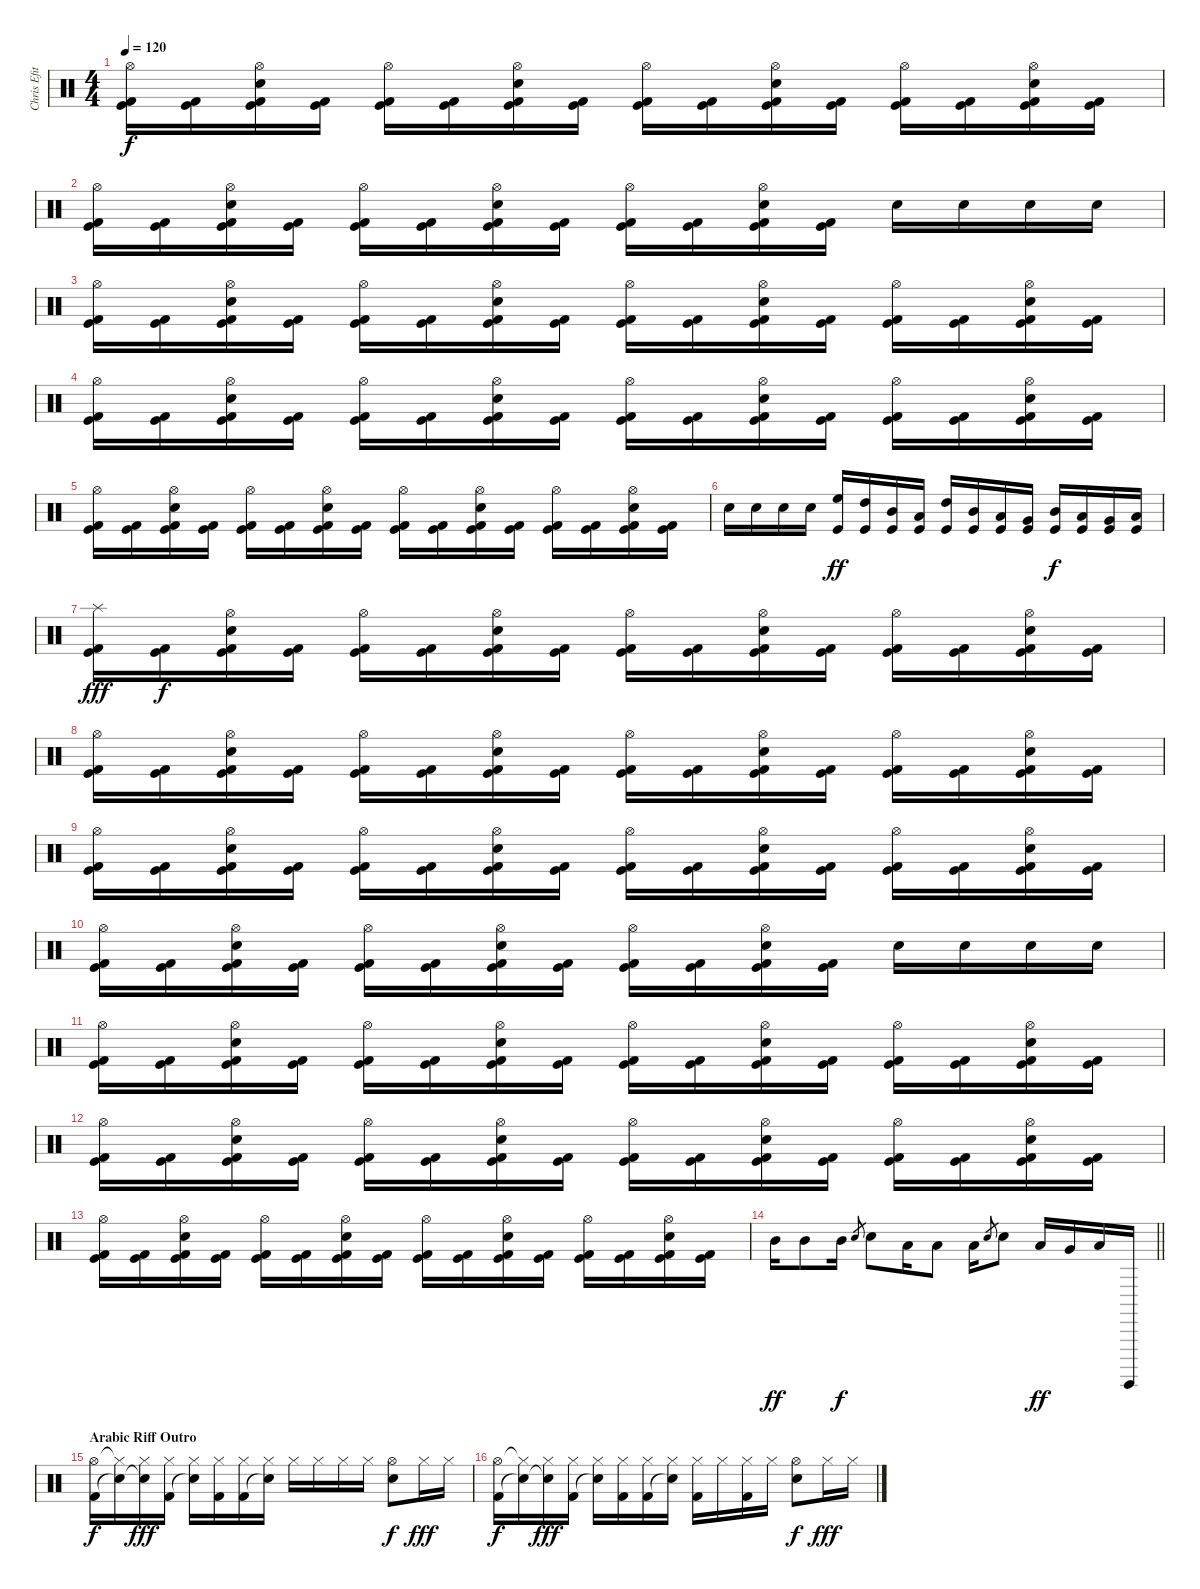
\track ("Chris Efithimiadis (drums)" "Chris Efit") {instrument percussion}
\staff {score}
\articulation defaults
\ts (4 4)
\tempo 120
\clef neutral
\ks c
("Hi-Hat (open)" "Kick (hit)" "Kick (hit) 2").16{dy f} ("Kick (hit)" "Kick (hit) 2").16 ("Hi-Hat (open)" "Snare (hit) 2" "Kick (hit)" "Kick (hit) 2").16 ("Kick (hit)" "Kick (hit) 2").16 ("Hi-Hat (open)" "Kick (hit)" "Kick (hit) 2").16 ("Kick (hit)" "Kick (hit) 2").16 ("Hi-Hat (open)" "Snare (hit) 2" "Kick (hit)" "Kick (hit) 2").16 ("Kick (hit)" "Kick (hit) 2").16 ("Hi-Hat (open)" "Kick (hit)" "Kick (hit) 2").16 ("Kick (hit)" "Kick (hit) 2").16 ("Hi-Hat (open)" "Snare (hit) 2" "Kick (hit)" "Kick (hit) 2").16 ("Kick (hit)" "Kick (hit) 2").16 ("Hi-Hat (open)" "Kick (hit)" "Kick (hit) 2").16 ("Kick (hit)" "Kick (hit) 2").16 ("Hi-Hat (open)" "Snare (hit) 2" "Kick (hit)" "Kick (hit) 2").16 ("Kick (hit)" "Kick (hit) 2").16 |
("Hi-Hat (open)" "Kick (hit)" "Kick (hit) 2").16 ("Kick (hit)" "Kick (hit) 2").16 ("Hi-Hat (open)" "Snare (hit) 2" "Kick (hit)" "Kick (hit) 2").16 ("Kick (hit)" "Kick (hit) 2").16 ("Hi-Hat (open)" "Kick (hit)" "Kick (hit) 2").16 ("Kick (hit)" "Kick (hit) 2").16 ("Hi-Hat (open)" "Snare (hit) 2" "Kick (hit)" "Kick (hit) 2").16 ("Kick (hit)" "Kick (hit) 2").16 ("Hi-Hat (open)" "Kick (hit)" "Kick (hit) 2").16 ("Kick (hit)" "Kick (hit) 2").16 ("Hi-Hat (open)" "Snare (hit) 2" "Kick (hit)" "Kick (hit) 2").16 ("Kick (hit)" "Kick (hit) 2").16 "Snare (hit) 2".16 "Snare (hit) 2".16 "Snare (hit) 2".16 "Snare (hit) 2".16 |
("Hi-Hat (open)" "Kick (hit)" "Kick (hit) 2").16 ("Kick (hit)" "Kick (hit) 2").16 ("Hi-Hat (open)" "Snare (hit) 2" "Kick (hit)" "Kick (hit) 2").16 ("Kick (hit)" "Kick (hit) 2").16 ("Hi-Hat (open)" "Kick (hit)" "Kick (hit) 2").16 ("Kick (hit)" "Kick (hit) 2").16 ("Hi-Hat (open)" "Snare (hit) 2" "Kick (hit)" "Kick (hit) 2").16 ("Kick (hit)" "Kick (hit) 2").16 ("Hi-Hat (open)" "Kick (hit)" "Kick (hit) 2").16 ("Kick (hit)" "Kick (hit) 2").16 ("Hi-Hat (open)" "Snare (hit) 2" "Kick (hit)" "Kick (hit) 2").16 ("Kick (hit)" "Kick (hit) 2").16 ("Hi-Hat (open)" "Kick (hit)" "Kick (hit) 2").16 ("Kick (hit)" "Kick (hit) 2").16 ("Hi-Hat (open)" "Snare (hit) 2" "Kick (hit)" "Kick (hit) 2").16 ("Kick (hit)" "Kick (hit) 2").16 |
("Hi-Hat (open)" "Kick (hit)" "Kick (hit) 2").16 ("Kick (hit)" "Kick (hit) 2").16 ("Hi-Hat (open)" "Snare (hit) 2" "Kick (hit)" "Kick (hit) 2").16 ("Kick (hit)" "Kick (hit) 2").16 ("Hi-Hat (open)" "Kick (hit)" "Kick (hit) 2").16 ("Kick (hit)" "Kick (hit) 2").16 ("Hi-Hat (open)" "Snare (hit) 2" "Kick (hit)" "Kick (hit) 2").16 ("Kick (hit)" "Kick (hit) 2").16 ("Hi-Hat (open)" "Kick (hit)" "Kick (hit) 2").16 ("Kick (hit)" "Kick (hit) 2").16 ("Hi-Hat (open)" "Snare (hit) 2" "Kick (hit)" "Kick (hit) 2").16 ("Kick (hit)" "Kick (hit) 2").16 ("Hi-Hat (open)" "Kick (hit)" "Kick (hit) 2").16 ("Kick (hit)" "Kick (hit) 2").16 ("Hi-Hat (open)" "Snare (hit) 2" "Kick (hit)" "Kick (hit) 2").16 ("Kick (hit)" "Kick (hit) 2").16 |
("Hi-Hat (open)" "Kick (hit)" "Kick (hit) 2").16 ("Kick (hit)" "Kick (hit) 2").16 ("Hi-Hat (open)" "Snare (hit) 2" "Kick (hit)" "Kick (hit) 2").16 ("Kick (hit)" "Kick (hit) 2").16 ("Hi-Hat (open)" "Kick (hit)" "Kick (hit) 2").16 ("Kick (hit)" "Kick (hit) 2").16 ("Hi-Hat (open)" "Snare (hit) 2" "Kick (hit)" "Kick (hit) 2").16 ("Kick (hit)" "Kick (hit) 2").16 ("Hi-Hat (open)" "Kick (hit)" "Kick (hit) 2").16 ("Kick (hit)" "Kick (hit) 2").16 ("Hi-Hat (open)" "Snare (hit) 2" "Kick (hit)" "Kick (hit) 2").16 ("Kick (hit)" "Kick (hit) 2").16 ("Hi-Hat (open)" "Kick (hit)" "Kick (hit) 2").16 ("Kick (hit)" "Kick (hit) 2").16 ("Hi-Hat (open)" "Snare (hit) 2" "Kick (hit)" "Kick (hit) 2").16 ("Kick (hit)" "Kick (hit) 2").16 |
"Snare (hit) 2".16 "Snare (hit) 2".16 "Snare (hit) 2".16 "Snare (hit) 2".16 ("High Floor Tom (hit)" "Kick (hit)").16{dy ff} ("High Tom (hit)" "Kick (hit)").16 ("Mid Tom (hit)" "Kick (hit)").16 ("Low Tom (hit)" "Kick (hit)").16 ("High Tom (hit)" "Kick (hit)").16 ("Mid Tom (hit)" "Kick (hit)").16 ("Low Tom (hit)" "Kick (hit)").16 ("Very Low Tom (hit)" "Kick (hit)").16 ("Mid Tom (hit)" "Kick (hit)").16{dy f} ("Low Tom (hit)" "Kick (hit)").16 ("Very Low Tom (hit)" "Kick (hit)").16 ("Low Floor Tom (hit)" "Kick (hit)").16 |
("Splash (hit)" "Kick (hit)" "Kick (hit) 2").16{dy fff} ("Kick (hit)" "Kick (hit) 2").16{dy f} ("Hi-Hat (open)" "Snare (hit) 2" "Kick (hit)" "Kick (hit) 2").16 ("Kick (hit)" "Kick (hit) 2").16 ("Hi-Hat (open)" "Kick (hit)" "Kick (hit) 2").16 ("Kick (hit)" "Kick (hit) 2").16 ("Hi-Hat (open)" "Snare (hit) 2" "Kick (hit)" "Kick (hit) 2").16 ("Kick (hit)" "Kick (hit) 2").16 ("Hi-Hat (open)" "Kick (hit)" "Kick (hit) 2").16 ("Kick (hit)" "Kick (hit) 2").16 ("Hi-Hat (open)" "Snare (hit) 2" "Kick (hit)" "Kick (hit) 2").16 ("Kick (hit)" "Kick (hit) 2").16 ("Hi-Hat (open)" "Kick (hit)" "Kick (hit) 2").16 ("Kick (hit)" "Kick (hit) 2").16 ("Hi-Hat (open)" "Snare (hit) 2" "Kick (hit)" "Kick (hit) 2").16 ("Kick (hit)" "Kick (hit) 2").16 |
("Hi-Hat (open)" "Kick (hit)" "Kick (hit) 2").16 ("Kick (hit)" "Kick (hit) 2").16 ("Hi-Hat (open)" "Snare (hit) 2" "Kick (hit)" "Kick (hit) 2").16 ("Kick (hit)" "Kick (hit) 2").16 ("Hi-Hat (open)" "Kick (hit)" "Kick (hit) 2").16 ("Kick (hit)" "Kick (hit) 2").16 ("Hi-Hat (open)" "Snare (hit) 2" "Kick (hit)" "Kick (hit) 2").16 ("Kick (hit)" "Kick (hit) 2").16 ("Hi-Hat (open)" "Kick (hit)" "Kick (hit) 2").16 ("Kick (hit)" "Kick (hit) 2").16 ("Hi-Hat (open)" "Snare (hit) 2" "Kick (hit)" "Kick (hit) 2").16 ("Kick (hit)" "Kick (hit) 2").16 ("Hi-Hat (open)" "Kick (hit)" "Kick (hit) 2").16 ("Kick (hit)" "Kick (hit) 2").16 ("Hi-Hat (open)" "Snare (hit) 2" "Kick (hit)" "Kick (hit) 2").16 ("Kick (hit)" "Kick (hit) 2").16 |
("Hi-Hat (open)" "Kick (hit)" "Kick (hit) 2").16 ("Kick (hit)" "Kick (hit) 2").16 ("Hi-Hat (open)" "Snare (hit) 2" "Kick (hit)" "Kick (hit) 2").16 ("Kick (hit)" "Kick (hit) 2").16 ("Hi-Hat (open)" "Kick (hit)" "Kick (hit) 2").16 ("Kick (hit)" "Kick (hit) 2").16 ("Hi-Hat (open)" "Snare (hit) 2" "Kick (hit)" "Kick (hit) 2").16 ("Kick (hit)" "Kick (hit) 2").16 ("Hi-Hat (open)" "Kick (hit)" "Kick (hit) 2").16 ("Kick (hit)" "Kick (hit) 2").16 ("Hi-Hat (open)" "Snare (hit) 2" "Kick (hit)" "Kick (hit) 2").16 ("Kick (hit)" "Kick (hit) 2").16 ("Hi-Hat (open)" "Kick (hit)" "Kick (hit) 2").16 ("Kick (hit)" "Kick (hit) 2").16 ("Hi-Hat (open)" "Snare (hit) 2" "Kick (hit)" "Kick (hit) 2").16 ("Kick (hit)" "Kick (hit) 2").16 |
("Hi-Hat (open)" "Kick (hit)" "Kick (hit) 2").16 ("Kick (hit)" "Kick (hit) 2").16 ("Hi-Hat (open)" "Snare (hit) 2" "Kick (hit)" "Kick (hit) 2").16 ("Kick (hit)" "Kick (hit) 2").16 ("Hi-Hat (open)" "Kick (hit)" "Kick (hit) 2").16 ("Kick (hit)" "Kick (hit) 2").16 ("Hi-Hat (open)" "Snare (hit) 2" "Kick (hit)" "Kick (hit) 2").16 ("Kick (hit)" "Kick (hit) 2").16 ("Hi-Hat (open)" "Kick (hit)" "Kick (hit) 2").16 ("Kick (hit)" "Kick (hit) 2").16 ("Hi-Hat (open)" "Snare (hit) 2" "Kick (hit)" "Kick (hit) 2").16 ("Kick (hit)" "Kick (hit) 2").16 "Snare (hit) 2".16 "Snare (hit) 2".16 "Snare (hit) 2".16 "Snare (hit) 2".16 |
("Hi-Hat (open)" "Kick (hit)" "Kick (hit) 2").16 ("Kick (hit)" "Kick (hit) 2").16 ("Hi-Hat (open)" "Snare (hit) 2" "Kick (hit)" "Kick (hit) 2").16 ("Kick (hit)" "Kick (hit) 2").16 ("Hi-Hat (open)" "Kick (hit)" "Kick (hit) 2").16 ("Kick (hit)" "Kick (hit) 2").16 ("Hi-Hat (open)" "Snare (hit) 2" "Kick (hit)" "Kick (hit) 2").16 ("Kick (hit)" "Kick (hit) 2").16 ("Hi-Hat (open)" "Kick (hit)" "Kick (hit) 2").16 ("Kick (hit)" "Kick (hit) 2").16 ("Hi-Hat (open)" "Snare (hit) 2" "Kick (hit)" "Kick (hit) 2").16 ("Kick (hit)" "Kick (hit) 2").16 ("Hi-Hat (open)" "Kick (hit)" "Kick (hit) 2").16 ("Kick (hit)" "Kick (hit) 2").16 ("Hi-Hat (open)" "Snare (hit) 2" "Kick (hit)" "Kick (hit) 2").16 ("Kick (hit)" "Kick (hit) 2").16 |
("Hi-Hat (open)" "Kick (hit)" "Kick (hit) 2").16 ("Kick (hit)" "Kick (hit) 2").16 ("Hi-Hat (open)" "Snare (hit) 2" "Kick (hit)" "Kick (hit) 2").16 ("Kick (hit)" "Kick (hit) 2").16 ("Hi-Hat (open)" "Kick (hit)" "Kick (hit) 2").16 ("Kick (hit)" "Kick (hit) 2").16 ("Hi-Hat (open)" "Snare (hit) 2" "Kick (hit)" "Kick (hit) 2").16 ("Kick (hit)" "Kick (hit) 2").16 ("Hi-Hat (open)" "Kick (hit)" "Kick (hit) 2").16 ("Kick (hit)" "Kick (hit) 2").16 ("Hi-Hat (open)" "Snare (hit) 2" "Kick (hit)" "Kick (hit) 2").16 ("Kick (hit)" "Kick (hit) 2").16 ("Hi-Hat (open)" "Kick (hit)" "Kick (hit) 2").16 ("Kick (hit)" "Kick (hit) 2").16 ("Hi-Hat (open)" "Snare (hit) 2" "Kick (hit)" "Kick (hit) 2").16 ("Kick (hit)" "Kick (hit) 2").16 |
("Hi-Hat (open)" "Kick (hit)" "Kick (hit) 2").16 ("Kick (hit)" "Kick (hit) 2").16 ("Hi-Hat (open)" "Snare (hit) 2" "Kick (hit)" "Kick (hit) 2").16 ("Kick (hit)" "Kick (hit) 2").16 ("Hi-Hat (open)" "Kick (hit)" "Kick (hit) 2").16 ("Kick (hit)" "Kick (hit) 2").16 ("Hi-Hat (open)" "Snare (hit) 2" "Kick (hit)" "Kick (hit) 2").16 ("Kick (hit)" "Kick (hit) 2").16 ("Hi-Hat (open)" "Kick (hit)" "Kick (hit) 2").16 ("Kick (hit)" "Kick (hit) 2").16 ("Hi-Hat (open)" "Snare (hit) 2" "Kick (hit)" "Kick (hit) 2").16 ("Kick (hit)" "Kick (hit) 2").16 ("Hi-Hat (open)" "Kick (hit)" "Kick (hit) 2").16 ("Kick (hit)" "Kick (hit) 2").16 ("Hi-Hat (open)" "Snare (hit) 2" "Kick (hit)" "Kick (hit) 2").16 ("Kick (hit)" "Kick (hit) 2").16 |
\barLineRight lightlight "Mid Tom (hit)".16{dy ff} "Mid Tom (hit)".8 "Mid Tom (hit)".16{dy f} "Snare (hit) 2".8{gr} "Snare (hit) 2".8 "Low Tom (hit)".16 "Low Tom (hit)".8 "Low Tom (hit)".16 "Snare (hit) 2".8{gr} "Snare (hit) 2".8 "Low Tom (hit)".16{dy ff} "Very Low Tom (hit)".16 "Low Floor Tom (hit)".16 "Surdo (hit)".16
|
\section ("" "Arabic Riff Outro")
("Hi-Hat (open)" "Kick (hit) 2").16{dy f} ("Hi-Hat (closed)"{t} "Snare (hit)"{t}).16 ("Hi-Hat (closed)" "Snare (hit)"{t}).16{dy fff} ("Hi-Hat (closed)" "Kick (hit) 2").16 ("Hi-Hat (closed)" "Snare (hit)"{t}).16 ("Hi-Hat (closed)" "Kick (hit) 2").16 ("Hi-Hat (closed)" "Kick (hit) 2").16 ("Hi-Hat (closed)" "Snare (hit)"{t}).16 "Hi-Hat (closed)".16 "Hi-Hat (closed)".16 "Hi-Hat (closed)".16 "Hi-Hat (closed)".16 ("Hi-Hat (open)" "Snare (hit) 2").8{dy f} "Hi-Hat (closed)".16{dy fff} "Hi-Hat (closed)".16 |
("Hi-Hat (open)" "Kick (hit) 2").16{dy f} ("Hi-Hat (closed)"{t} "Snare (hit)"{t}).16 ("Hi-Hat (closed)" "Snare (hit)"{t}).16{dy fff} ("Hi-Hat (closed)" "Kick (hit) 2").16 ("Hi-Hat (closed)" "Snare (hit)"{t}).16 ("Hi-Hat (closed)" "Kick (hit) 2").16 ("Hi-Hat (closed)" "Kick (hit) 2").16 ("Hi-Hat (closed)" "Snare (hit)"{t}).16 ("Hi-Hat (closed)" "Kick (hit) 2").16 "Hi-Hat (closed)".16 ("Hi-Hat (closed)" "Kick (hit) 2").16 "Hi-Hat (closed)".16 ("Hi-Hat (open)" "Snare (hit) 2").8{dy f} "Hi-Hat (closed)".16{dy fff} "Hi-Hat (closed)".16
